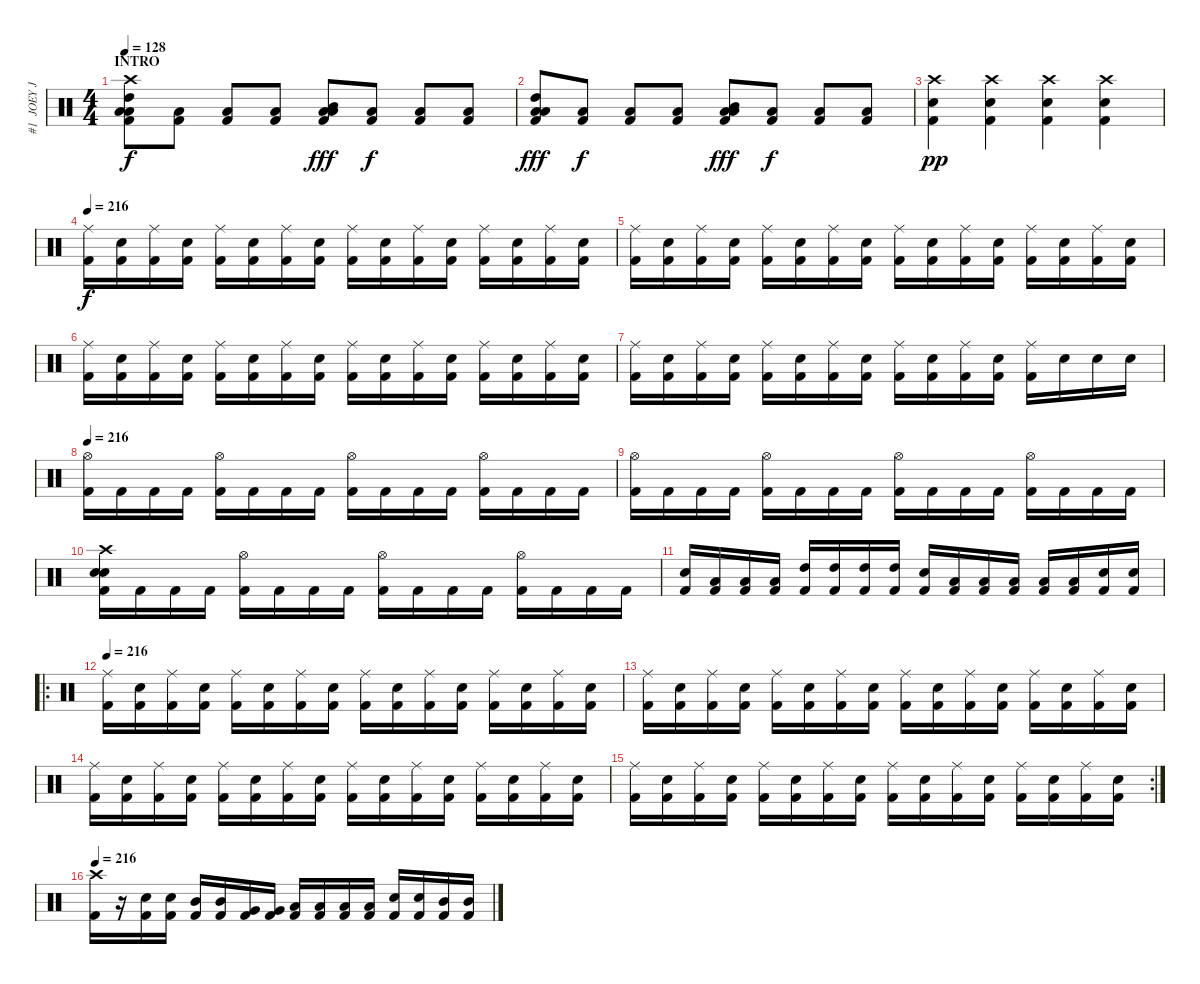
\track ("#1  JOEY JORDISON" "#1  JOEY J") {instrument percussion}
\staff {score}
\articulation defaults
\ts (4 4)
\section ("" "INTRO")
\tempo 128
\tempo 216
\tempo 128
\clef neutral
\ks c
("Crash high (hit)" "Low Floor Tom (hit)" "High Tom (hit)" "Low Floor Tom (hit)" "Kick (hit) 2").8{dy f} ("Low Floor Tom (hit)" "Kick (hit) 2").8 ("Low Floor Tom (hit)" "Kick (hit) 2").8 ("Low Floor Tom (hit)" "Kick (hit) 2").8 ("Low Floor Tom (hit)" "Mid Tom (hit)" "Low Floor Tom (hit)" "Kick (hit) 2").8{dy fff} ("Low Floor Tom (hit)" "Kick (hit) 2").8{dy f} ("Low Floor Tom (hit)" "Kick (hit) 2").8 ("Low Floor Tom (hit)" "Kick (hit) 2").8 |
("Low Floor Tom (hit)" "High Tom (hit)" "Low Floor Tom (hit)" "Kick (hit) 2").8{dy fff} ("Low Floor Tom (hit)" "Kick (hit) 2").8{dy f} ("Low Floor Tom (hit)" "Kick (hit) 2").8 ("Low Floor Tom (hit)" "Kick (hit) 2").8 ("Low Floor Tom (hit)" "Mid Tom (hit)" "Low Floor Tom (hit)" "Kick (hit) 2").8{dy fff} ("Low Floor Tom (hit)" "Kick (hit) 2").8{dy f} ("Low Floor Tom (hit)" "Kick (hit) 2").8 ("Low Floor Tom (hit)" "Kick (hit) 2").8 |
("Crash high (hit)" "Electric Snare (hit)" "Kick (hit) 2").4{dy pp} ("Crash high (hit)" "Electric Snare (hit)" "Kick (hit) 2").4 ("Crash high (hit)" "Electric Snare (hit)" "Kick (hit) 2").4 ("Crash high (hit)" "Electric Snare (hit)" "Kick (hit) 2").4 |
\tempo 216
("Ride (middle)" "Kick (hit) 2").16{dy f} ("Electric Snare (hit)" "Kick (hit) 2").16 ("Ride (middle)" "Kick (hit) 2").16 ("Electric Snare (hit)" "Kick (hit) 2").16 ("Ride (middle)" "Kick (hit) 2").16 ("Electric Snare (hit)" "Kick (hit) 2").16 ("Ride (middle)" "Kick (hit) 2").16 ("Electric Snare (hit)" "Kick (hit) 2").16 ("Ride (middle)" "Kick (hit) 2").16 ("Electric Snare (hit)" "Kick (hit) 2").16 ("Ride (middle)" "Kick (hit) 2").16 ("Electric Snare (hit)" "Kick (hit) 2").16 ("Ride (middle)" "Kick (hit) 2").16 ("Electric Snare (hit)" "Kick (hit) 2").16 ("Ride (middle)" "Kick (hit) 2").16 ("Electric Snare (hit)" "Kick (hit) 2").16 |
("Ride (middle)" "Kick (hit) 2").16 ("Electric Snare (hit)" "Kick (hit) 2").16 ("Ride (middle)" "Kick (hit) 2").16 ("Electric Snare (hit)" "Kick (hit) 2").16 ("Ride (middle)" "Kick (hit) 2").16 ("Electric Snare (hit)" "Kick (hit) 2").16 ("Ride (middle)" "Kick (hit) 2").16 ("Electric Snare (hit)" "Kick (hit) 2").16 ("Ride (middle)" "Kick (hit) 2").16 ("Electric Snare (hit)" "Kick (hit) 2").16 ("Ride (middle)" "Kick (hit) 2").16 ("Electric Snare (hit)" "Kick (hit) 2").16 ("Ride (middle)" "Kick (hit) 2").16 ("Electric Snare (hit)" "Kick (hit) 2").16 ("Ride (middle)" "Kick (hit) 2").16 ("Electric Snare (hit)" "Kick (hit) 2").16 |
("Ride (middle)" "Kick (hit) 2").16 ("Electric Snare (hit)" "Kick (hit) 2").16 ("Ride (middle)" "Kick (hit) 2").16 ("Electric Snare (hit)" "Kick (hit) 2").16 ("Ride (middle)" "Kick (hit) 2").16 ("Electric Snare (hit)" "Kick (hit) 2").16 ("Ride (middle)" "Kick (hit) 2").16 ("Electric Snare (hit)" "Kick (hit) 2").16 ("Ride (middle)" "Kick (hit) 2").16 ("Electric Snare (hit)" "Kick (hit) 2").16 ("Ride (middle)" "Kick (hit) 2").16 ("Electric Snare (hit)" "Kick (hit) 2").16 ("Ride (middle)" "Kick (hit) 2").16 ("Electric Snare (hit)" "Kick (hit) 2").16 ("Ride (middle)" "Kick (hit) 2").16 ("Electric Snare (hit)" "Kick (hit) 2").16 |
("Ride (middle)" "Kick (hit) 2").16 ("Electric Snare (hit)" "Kick (hit) 2").16 ("Ride (middle)" "Kick (hit) 2").16 ("Electric Snare (hit)" "Kick (hit) 2").16 ("Ride (middle)" "Kick (hit) 2").16 ("Electric Snare (hit)" "Kick (hit) 2").16 ("Ride (middle)" "Kick (hit) 2").16 ("Electric Snare (hit)" "Kick (hit) 2").16 ("Ride (middle)" "Kick (hit) 2").16 ("Electric Snare (hit)" "Kick (hit) 2").16 ("Ride (middle)" "Kick (hit) 2").16 ("Electric Snare (hit)" "Kick (hit) 2").16 ("Ride (middle)" "Kick (hit) 2").16 "Electric Snare (hit)".16 "Electric Snare (hit)".16 "Electric Snare (hit)".16 |
\tempo 216
("Hi-Hat (open)" "Kick (hit) 2").16 "Kick (hit) 2".16 "Kick (hit) 2".16 "Kick (hit) 2".16 ("Hi-Hat (open)" "Kick (hit) 2").16 "Kick (hit) 2".16 "Kick (hit) 2".16 "Kick (hit) 2".16 ("Hi-Hat (open)" "Kick (hit) 2").16 "Kick (hit) 2".16 "Kick (hit) 2".16 "Kick (hit) 2".16 ("Hi-Hat (open)" "Kick (hit) 2").16 "Kick (hit) 2".16 "Kick (hit) 2".16 "Kick (hit) 2".16 |
("Hi-Hat (open)" "Kick (hit) 2").16 "Kick (hit) 2".16 "Kick (hit) 2".16 "Kick (hit) 2".16 ("Hi-Hat (open)" "Kick (hit) 2").16 "Kick (hit) 2".16 "Kick (hit) 2".16 "Kick (hit) 2".16 ("Hi-Hat (open)" "Kick (hit) 2").16 "Kick (hit) 2".16 "Kick (hit) 2".16 "Kick (hit) 2".16 ("Hi-Hat (open)" "Kick (hit) 2").16 "Kick (hit) 2".16 "Kick (hit) 2".16 "Kick (hit) 2".16 |
("Crash high (hit)" "Electric Snare (hit)" "Electric Snare (hit)" "Kick (hit) 2").16 "Kick (hit) 2".16 "Kick (hit) 2".16 "Kick (hit) 2".16 ("Hi-Hat (open)" "Kick (hit) 2").16 "Kick (hit) 2".16 "Kick (hit) 2".16 "Kick (hit) 2".16 ("Hi-Hat (open)" "Kick (hit) 2").16 "Kick (hit) 2".16 "Kick (hit) 2".16 "Kick (hit) 2".16 ("Hi-Hat (open)" "Kick (hit) 2").16 "Kick (hit) 2".16 "Kick (hit) 2".16 "Kick (hit) 2".16 |
("Electric Snare (hit)" "Kick (hit) 2").16 ("Low Floor Tom (hit)" "Kick (hit) 2").16 ("Low Floor Tom (hit)" "Kick (hit) 2").16 ("Low Floor Tom (hit)" "Kick (hit) 2").16 ("High Tom (hit)" "Kick (hit) 2").16 ("High Tom (hit)" "Kick (hit) 2").16 ("High Tom (hit)" "Kick (hit) 2").16 ("High Tom (hit)" "Kick (hit) 2").16 ("Electric Snare (hit)" "Kick (hit) 2").16 ("Low Tom (hit)" "Kick (hit) 2").16 ("Low Tom (hit)" "Kick (hit) 2").16 ("Low Tom (hit)" "Kick (hit) 2").16 ("Low Floor Tom (hit)" "Kick (hit) 2").16 ("Low Floor Tom (hit)" "Kick (hit) 2").16 ("Electric Snare (hit)" "Kick (hit) 2").16 ("Electric Snare (hit)" "Kick (hit) 2").16 |
\ro
\tempo 216
("Ride (middle)" "Kick (hit) 2").16 ("Electric Snare (hit)" "Kick (hit) 2").16 ("Ride (middle)" "Kick (hit) 2").16 ("Electric Snare (hit)" "Kick (hit) 2").16 ("Ride (middle)" "Kick (hit) 2").16 ("Electric Snare (hit)" "Kick (hit) 2").16 ("Ride (middle)" "Kick (hit) 2").16 ("Electric Snare (hit)" "Kick (hit) 2").16 ("Ride (middle)" "Kick (hit) 2").16 ("Electric Snare (hit)" "Kick (hit) 2").16 ("Ride (middle)" "Kick (hit) 2").16 ("Electric Snare (hit)" "Kick (hit) 2").16 ("Ride (middle)" "Kick (hit) 2").16 ("Electric Snare (hit)" "Kick (hit) 2").16 ("Ride (middle)" "Kick (hit) 2").16 ("Electric Snare (hit)" "Kick (hit) 2").16 |
("Ride (middle)" "Kick (hit) 2").16 ("Electric Snare (hit)" "Kick (hit) 2").16 ("Ride (middle)" "Kick (hit) 2").16 ("Electric Snare (hit)" "Kick (hit) 2").16 ("Ride (middle)" "Kick (hit) 2").16 ("Electric Snare (hit)" "Kick (hit) 2").16 ("Ride (middle)" "Kick (hit) 2").16 ("Electric Snare (hit)" "Kick (hit) 2").16 ("Ride (middle)" "Kick (hit) 2").16 ("Electric Snare (hit)" "Kick (hit) 2").16 ("Ride (middle)" "Kick (hit) 2").16 ("Electric Snare (hit)" "Kick (hit) 2").16 ("Ride (middle)" "Kick (hit) 2").16 ("Electric Snare (hit)" "Kick (hit) 2").16 ("Ride (middle)" "Kick (hit) 2").16 ("Electric Snare (hit)" "Kick (hit) 2").16 |
("Ride (middle)" "Kick (hit) 2").16 ("Electric Snare (hit)" "Kick (hit) 2").16 ("Ride (middle)" "Kick (hit) 2").16 ("Electric Snare (hit)" "Kick (hit) 2").16 ("Ride (middle)" "Kick (hit) 2").16 ("Electric Snare (hit)" "Kick (hit) 2").16 ("Ride (middle)" "Kick (hit) 2").16 ("Electric Snare (hit)" "Kick (hit) 2").16 ("Ride (middle)" "Kick (hit) 2").16 ("Electric Snare (hit)" "Kick (hit) 2").16 ("Ride (middle)" "Kick (hit) 2").16 ("Electric Snare (hit)" "Kick (hit) 2").16 ("Ride (middle)" "Kick (hit) 2").16 ("Electric Snare (hit)" "Kick (hit) 2").16 ("Ride (middle)" "Kick (hit) 2").16 ("Electric Snare (hit)" "Kick (hit) 2").16 |
\rc 2
("Ride (middle)" "Kick (hit) 2").16 ("Electric Snare (hit)" "Kick (hit) 2").16 ("Ride (middle)" "Kick (hit) 2").16 ("Electric Snare (hit)" "Kick (hit) 2").16 ("Ride (middle)" "Kick (hit) 2").16 ("Electric Snare (hit)" "Kick (hit) 2").16 ("Ride (middle)" "Kick (hit) 2").16 ("Electric Snare (hit)" "Kick (hit) 2").16 ("Ride (middle)" "Kick (hit) 2").16 ("Electric Snare (hit)" "Kick (hit) 2").16 ("Ride (middle)" "Kick (hit) 2").16 ("Electric Snare (hit)" "Kick (hit) 2").16 ("Ride (middle)" "Kick (hit) 2").16 ("Electric Snare (hit)" "Kick (hit) 2").16 ("Ride (middle)" "Kick (hit) 2").16 ("Electric Snare (hit)" "Kick (hit) 2").16 |
\tempo 216
("Crash high (hit)" "Kick (hit) 2").16 r.16 ("Electric Snare (hit)" "Kick (hit) 2").16 ("Electric Snare (hit)" "Kick (hit) 2").16 ("Mid Tom (hit)" "Kick (hit) 2").16 ("Mid Tom (hit)" "Kick (hit) 2").16 ("Very Low Tom (hit)" "Kick (hit) 2").16 ("Very Low Tom (hit)" "Kick (hit) 2").16 ("Low Tom (hit)" "Kick (hit) 2").16 ("Low Tom (hit)" "Kick (hit) 2").16 ("Low Floor Tom (hit)" "Kick (hit) 2").16 ("Low Floor Tom (hit)" "Kick (hit) 2").16 ("Electric Snare (hit)" "Kick (hit) 2").16 ("Electric Snare (hit)" "Kick (hit) 2").16 ("Mid Tom (hit)" "Kick (hit) 2").16 ("Mid Tom (hit)" "Kick (hit) 2").16
